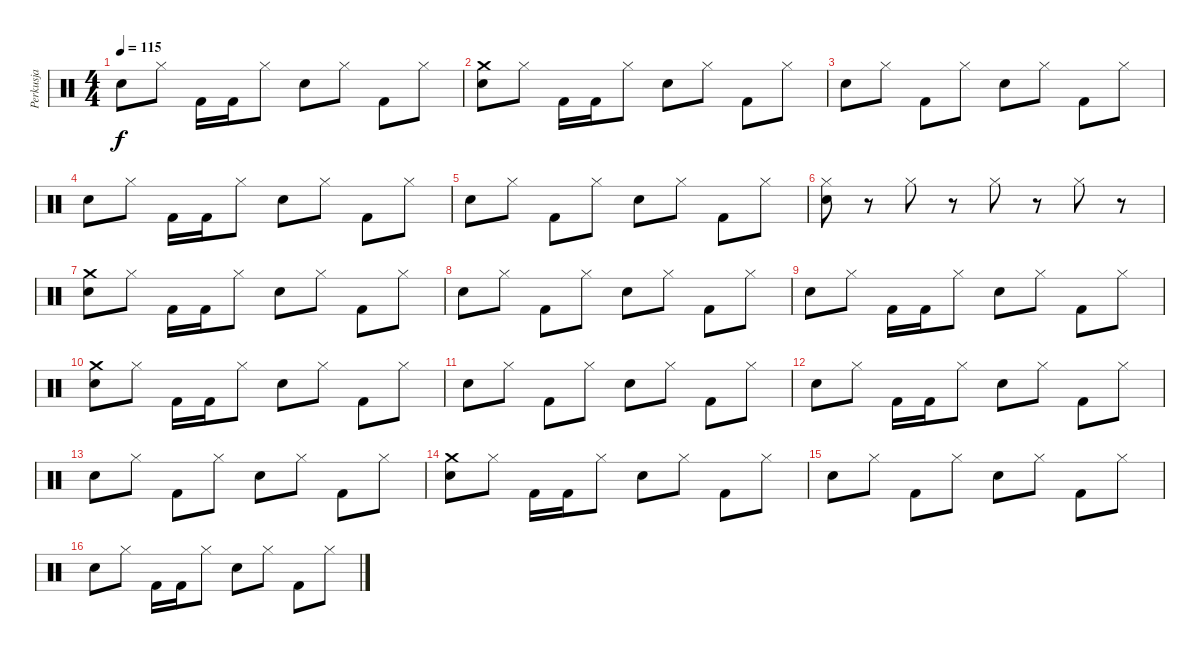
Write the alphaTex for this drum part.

\track ("Perkusja" "Perkusja") {instrument percussion}
\staff {score}
\articulation defaults
\ts (4 4)
\tempo 115
\clef neutral
\ks c "Snare (hit) 2".8{dy f} "Hi-Hat (closed)".8 "Kick (hit) 2".16 "Kick (hit) 2".16 "Hi-Hat (closed)".8 "Snare (hit) 2".8 "Hi-Hat (closed)".8 "Kick (hit) 2".8 "Hi-Hat (closed)".8
|
("Snare (hit) 2" "Crash medium (hit)").8 "Hi-Hat (closed)".8 "Kick (hit) 2".16 "Kick (hit) 2".16 "Hi-Hat (closed)".8 "Snare (hit) 2".8 "Hi-Hat (closed)".8 "Kick (hit) 2".8 "Hi-Hat (closed)".8 |
"Snare (hit) 2".8 "Hi-Hat (closed)".8 "Kick (hit) 2".8 "Hi-Hat (closed)".8 "Snare (hit) 2".8 "Hi-Hat (closed)".8 "Kick (hit) 2".8 "Hi-Hat (closed)".8 |
"Snare (hit) 2".8 "Hi-Hat (closed)".8 "Kick (hit) 2".16 "Kick (hit) 2".16 "Hi-Hat (closed)".8 "Snare (hit) 2".8 "Hi-Hat (closed)".8 "Kick (hit) 2".8 "Hi-Hat (closed)".8 |
"Snare (hit) 2".8 "Hi-Hat (closed)".8 "Kick (hit) 2".8 "Hi-Hat (closed)".8 "Snare (hit) 2".8 "Hi-Hat (closed)".8 "Kick (hit) 2".8 "Hi-Hat (closed)".8 |
("Hi-Hat (closed)" "Snare (hit) 2").8 r.8 "Hi-Hat (closed)".8 r.8 "Hi-Hat (closed)".8 r.8 "Hi-Hat (closed)".8 r.8 |
("Snare (hit) 2" "Crash medium (hit)").8 "Hi-Hat (closed)".8 "Kick (hit) 2".16 "Kick (hit) 2".16 "Hi-Hat (closed)".8 "Snare (hit) 2".8 "Hi-Hat (closed)".8 "Kick (hit) 2".8 "Hi-Hat (closed)".8 |
"Snare (hit) 2".8 "Hi-Hat (closed)".8 "Kick (hit) 2".8 "Hi-Hat (closed)".8 "Snare (hit) 2".8 "Hi-Hat (closed)".8 "Kick (hit) 2".8 "Hi-Hat (closed)".8 |
"Snare (hit) 2".8 "Hi-Hat (closed)".8 "Kick (hit) 2".16 "Kick (hit) 2".16 "Hi-Hat (closed)".8 "Snare (hit) 2".8 "Hi-Hat (closed)".8 "Kick (hit) 2".8 "Hi-Hat (closed)".8 |
("Snare (hit) 2" "Crash medium (hit)").8 "Hi-Hat (closed)".8 "Kick (hit) 2".16 "Kick (hit) 2".16 "Hi-Hat (closed)".8 "Snare (hit) 2".8 "Hi-Hat (closed)".8 "Kick (hit) 2".8 "Hi-Hat (closed)".8 |
"Snare (hit) 2".8 "Hi-Hat (closed)".8 "Kick (hit) 2".8 "Hi-Hat (closed)".8 "Snare (hit) 2".8 "Hi-Hat (closed)".8 "Kick (hit) 2".8 "Hi-Hat (closed)".8 |
"Snare (hit) 2".8 "Hi-Hat (closed)".8 "Kick (hit) 2".16 "Kick (hit) 2".16 "Hi-Hat (closed)".8 "Snare (hit) 2".8 "Hi-Hat (closed)".8 "Kick (hit) 2".8 "Hi-Hat (closed)".8 |
"Snare (hit) 2".8 "Hi-Hat (closed)".8 "Kick (hit) 2".8 "Hi-Hat (closed)".8 "Snare (hit) 2".8 "Hi-Hat (closed)".8 "Kick (hit) 2".8 "Hi-Hat (closed)".8 |
("Snare (hit) 2" "Crash medium (hit)").8 "Hi-Hat (closed)".8 "Kick (hit) 2".16 "Kick (hit) 2".16 "Hi-Hat (closed)".8 "Snare (hit) 2".8 "Hi-Hat (closed)".8 "Kick (hit) 2".8 "Hi-Hat (closed)".8 |
"Snare (hit) 2".8 "Hi-Hat (closed)".8 "Kick (hit) 2".8 "Hi-Hat (closed)".8 "Snare (hit) 2".8 "Hi-Hat (closed)".8 "Kick (hit) 2".8 "Hi-Hat (closed)".8 |
"Snare (hit) 2".8 "Hi-Hat (closed)".8 "Kick (hit) 2".16 "Kick (hit) 2".16 "Hi-Hat (closed)".8 "Snare (hit) 2".8 "Hi-Hat (closed)".8 "Kick (hit) 2".8 "Hi-Hat (closed)".8
